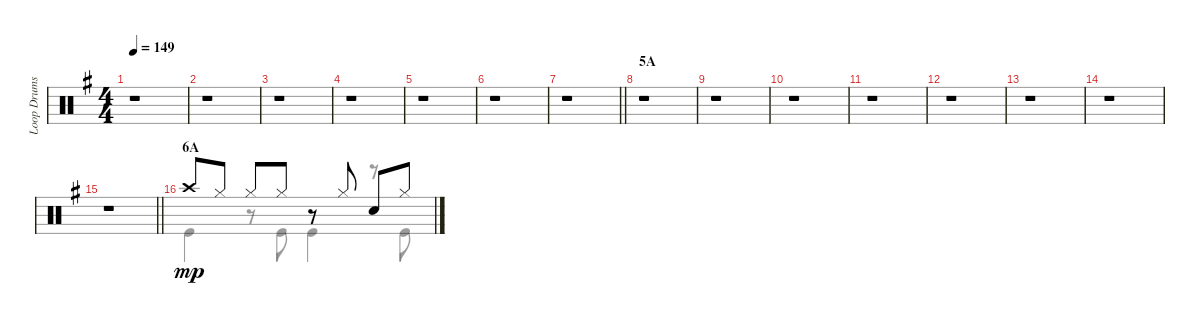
\track ("Loop Drums" "Loop Drums") {instrument percussion}
\staff {score}
\articulation defaults
\voice
\ts (4 4)
\tempo 149
\clef neutral
\ks g
r.1{dy mp} |
r.1 |
r.1 |
r.1 |
r.1 |
r.1 |
\barLineRight lightlight
r.1 |
\section ("" "5A")
r.1 |
r.1 |
r.1 |
r.1 |
r.1 |
r.1 |
r.1 |
\barLineRight lightlight
r.1 |
\section ("" "6A")
"Crash high (hit)".8 "Hi-Hat (closed)".8 "Hi-Hat (closed)".8 "Hi-Hat (closed)".8 r.8 "Hi-Hat (closed)".8 "Electric Snare (hit)".8 "Hi-Hat (closed)".8
\voice
\clef neutral
\ottava regular
\simile none
\ks g
r.1{dy mp} |
r.1 |
r.1 |
r.1 |
r.1 |
r.1 |
\barLineRight lightlight
r.1 |
r.1 |
r.1 |
r.1 |
r.1 |
r.1 |
r.1 |
r.1 |
\barLineRight lightlight
r.1 |
"Kick (hit)".4 r.8 "Kick (hit)".8 "Kick (hit)".4 r.8 "Kick (hit)".8
